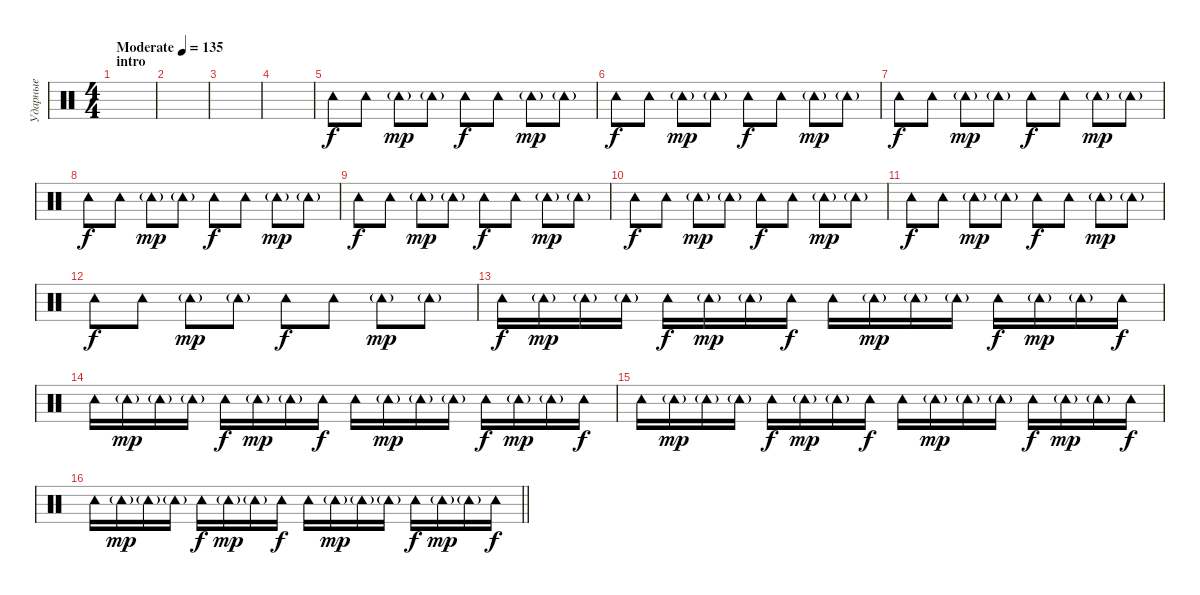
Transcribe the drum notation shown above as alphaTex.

\track ("Ударные" "Ударные") {instrument percussion}
\staff {score}
\articulation defaults
\ts (4 4)
\section ("" "intro")
\tempo (135 "Moderate")
\clef neutral
\ks c
|
|
|
|
"Tambourine (hit)".8 "Tambourine (hit)".8 "Tambourine (hit)"{g}.8{dy mp} "Tambourine (hit)"{g}.8 "Tambourine (hit)".8{dy f} "Tambourine (hit)".8 "Tambourine (hit)"{g}.8{dy mp} "Tambourine (hit)"{g}.8 |
"Tambourine (hit)".8{dy f} "Tambourine (hit)".8 "Tambourine (hit)"{g}.8{dy mp} "Tambourine (hit)"{g}.8 "Tambourine (hit)".8{dy f} "Tambourine (hit)".8 "Tambourine (hit)"{g}.8{dy mp} "Tambourine (hit)"{g}.8 |
"Tambourine (hit)".8{dy f} "Tambourine (hit)".8 "Tambourine (hit)"{g}.8{dy mp} "Tambourine (hit)"{g}.8 "Tambourine (hit)".8{dy f} "Tambourine (hit)".8 "Tambourine (hit)"{g}.8{dy mp} "Tambourine (hit)"{g}.8 |
"Tambourine (hit)".8{dy f} "Tambourine (hit)".8 "Tambourine (hit)"{g}.8{dy mp} "Tambourine (hit)"{g}.8 "Tambourine (hit)".8{dy f} "Tambourine (hit)".8 "Tambourine (hit)"{g}.8{dy mp} "Tambourine (hit)"{g}.8 |
"Tambourine (hit)".8{dy f} "Tambourine (hit)".8 "Tambourine (hit)"{g}.8{dy mp} "Tambourine (hit)"{g}.8 "Tambourine (hit)".8{dy f} "Tambourine (hit)".8 "Tambourine (hit)"{g}.8{dy mp} "Tambourine (hit)"{g}.8 |
"Tambourine (hit)".8{dy f} "Tambourine (hit)".8 "Tambourine (hit)"{g}.8{dy mp} "Tambourine (hit)"{g}.8 "Tambourine (hit)".8{dy f} "Tambourine (hit)".8 "Tambourine (hit)"{g}.8{dy mp} "Tambourine (hit)"{g}.8 |
"Tambourine (hit)".8{dy f} "Tambourine (hit)".8 "Tambourine (hit)"{g}.8{dy mp} "Tambourine (hit)"{g}.8 "Tambourine (hit)".8{dy f} "Tambourine (hit)".8 "Tambourine (hit)"{g}.8{dy mp} "Tambourine (hit)"{g}.8 |
"Tambourine (hit)".8{dy f} "Tambourine (hit)".8 "Tambourine (hit)"{g}.8{dy mp} "Tambourine (hit)"{g}.8 "Tambourine (hit)".8{dy f} "Tambourine (hit)".8 "Tambourine (hit)"{g}.8{dy mp} "Tambourine (hit)"{g}.8 |
"Tambourine (hit)".16{dy f} "Tambourine (hit)"{g}.16{dy mp} "Tambourine (hit)"{g}.16 "Tambourine (hit)"{g}.16 "Tambourine (hit)".16{dy f} "Tambourine (hit)"{g}.16{dy mp} "Tambourine (hit)"{g}.16 "Tambourine (hit)".16{dy f} "Tambourine (hit)".16 "Tambourine (hit)"{g}.16{dy mp} "Tambourine (hit)"{g}.16 "Tambourine (hit)"{g}.16 "Tambourine (hit)".16{dy f} "Tambourine (hit)"{g}.16{dy mp} "Tambourine (hit)"{g}.16 "Tambourine (hit)".16{dy f} |
"Tambourine (hit)".16 "Tambourine (hit)"{g}.16{dy mp} "Tambourine (hit)"{g}.16 "Tambourine (hit)"{g}.16 "Tambourine (hit)".16{dy f} "Tambourine (hit)"{g}.16{dy mp} "Tambourine (hit)"{g}.16 "Tambourine (hit)".16{dy f} "Tambourine (hit)".16 "Tambourine (hit)"{g}.16{dy mp} "Tambourine (hit)"{g}.16 "Tambourine (hit)"{g}.16 "Tambourine (hit)".16{dy f} "Tambourine (hit)"{g}.16{dy mp} "Tambourine (hit)"{g}.16 "Tambourine (hit)".16{dy f} |
"Tambourine (hit)".16 "Tambourine (hit)"{g}.16{dy mp} "Tambourine (hit)"{g}.16 "Tambourine (hit)"{g}.16 "Tambourine (hit)".16{dy f} "Tambourine (hit)"{g}.16{dy mp} "Tambourine (hit)"{g}.16 "Tambourine (hit)".16{dy f} "Tambourine (hit)".16 "Tambourine (hit)"{g}.16{dy mp} "Tambourine (hit)"{g}.16 "Tambourine (hit)"{g}.16 "Tambourine (hit)".16{dy f} "Tambourine (hit)"{g}.16{dy mp} "Tambourine (hit)"{g}.16 "Tambourine (hit)".16{dy f} |
\barLineRight lightlight "Tambourine (hit)".16 "Tambourine (hit)"{g}.16{dy mp} "Tambourine (hit)"{g}.16 "Tambourine (hit)"{g}.16 "Tambourine (hit)".16{dy f} "Tambourine (hit)"{g}.16{dy mp} "Tambourine (hit)"{g}.16 "Tambourine (hit)".16{dy f} "Tambourine (hit)".16 "Tambourine (hit)"{g}.16{dy mp} "Tambourine (hit)"{g}.16 "Tambourine (hit)"{g}.16 "Tambourine (hit)".16{dy f} "Tambourine (hit)"{g}.16{dy mp} "Tambourine (hit)"{g}.16 "Tambourine (hit)".16{dy f}
